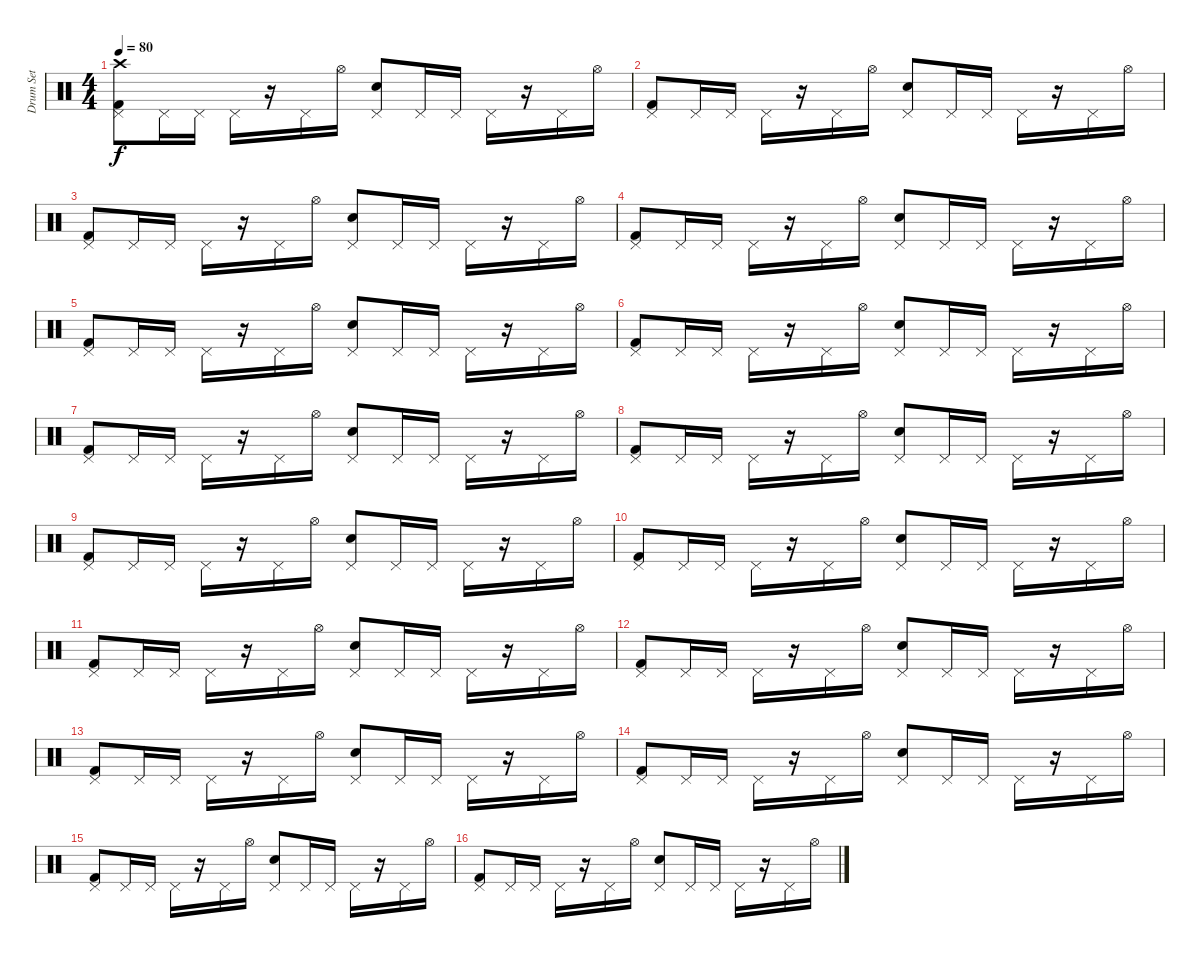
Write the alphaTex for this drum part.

\track ("Drum Set" "Drum Set") {instrument percussion}
\staff {score}
\articulation defaults
\ts (4 4)
\tempo 80
\clef neutral
\ks c
("Pedal Hi-Hat (hit)" "Kick (hit) 2" "Crash high (hit)").8{dy f} "Pedal Hi-Hat (hit)".16 "Pedal Hi-Hat (hit)".16 "Pedal Hi-Hat (hit)".16 r.16 "Pedal Hi-Hat (hit)".16 "Hi-Hat (open)".16 ("Pedal Hi-Hat (hit)" "Electric Snare (hit)").8 "Pedal Hi-Hat (hit)".16 "Pedal Hi-Hat (hit)".16 "Pedal Hi-Hat (hit)".16 r.16 "Pedal Hi-Hat (hit)".16 "Hi-Hat (open)".16 |
("Pedal Hi-Hat (hit)" "Kick (hit) 2").8 "Pedal Hi-Hat (hit)".16 "Pedal Hi-Hat (hit)".16 "Pedal Hi-Hat (hit)".16 r.16 "Pedal Hi-Hat (hit)".16 "Hi-Hat (open)".16 ("Pedal Hi-Hat (hit)" "Electric Snare (hit)").8 "Pedal Hi-Hat (hit)".16 "Pedal Hi-Hat (hit)".16 "Pedal Hi-Hat (hit)".16 r.16 "Pedal Hi-Hat (hit)".16 "Hi-Hat (open)".16 |
("Kick (hit) 2" "Pedal Hi-Hat (hit)").8 "Pedal Hi-Hat (hit)".16 "Pedal Hi-Hat (hit)".16 "Pedal Hi-Hat (hit)".16 r.16 "Pedal Hi-Hat (hit)".16 "Hi-Hat (open)".16 ("Electric Snare (hit)" "Pedal Hi-Hat (hit)").8 "Pedal Hi-Hat (hit)".16 "Pedal Hi-Hat (hit)".16 "Pedal Hi-Hat (hit)".16 r.16 "Pedal Hi-Hat (hit)".16 "Hi-Hat (open)".16 |
("Pedal Hi-Hat (hit)" "Kick (hit) 2").8 "Pedal Hi-Hat (hit)".16 "Pedal Hi-Hat (hit)".16 "Pedal Hi-Hat (hit)".16 r.16 "Pedal Hi-Hat (hit)".16 "Hi-Hat (open)".16 ("Pedal Hi-Hat (hit)" "Electric Snare (hit)").8 "Pedal Hi-Hat (hit)".16 "Pedal Hi-Hat (hit)".16 "Pedal Hi-Hat (hit)".16 r.16 "Pedal Hi-Hat (hit)".16 "Hi-Hat (open)".16 |
("Kick (hit) 2" "Pedal Hi-Hat (hit)").8 "Pedal Hi-Hat (hit)".16 "Pedal Hi-Hat (hit)".16 "Pedal Hi-Hat (hit)".16 r.16 "Pedal Hi-Hat (hit)".16 "Hi-Hat (open)".16 ("Electric Snare (hit)" "Pedal Hi-Hat (hit)").8 "Pedal Hi-Hat (hit)".16 "Pedal Hi-Hat (hit)".16 "Pedal Hi-Hat (hit)".16 r.16 "Pedal Hi-Hat (hit)".16 "Hi-Hat (open)".16 |
("Pedal Hi-Hat (hit)" "Kick (hit) 2").8 "Pedal Hi-Hat (hit)".16 "Pedal Hi-Hat (hit)".16 "Pedal Hi-Hat (hit)".16 r.16 "Pedal Hi-Hat (hit)".16 "Hi-Hat (open)".16 ("Pedal Hi-Hat (hit)" "Electric Snare (hit)").8 "Pedal Hi-Hat (hit)".16 "Pedal Hi-Hat (hit)".16 "Pedal Hi-Hat (hit)".16 r.16 "Pedal Hi-Hat (hit)".16 "Hi-Hat (open)".16 |
("Kick (hit) 2" "Pedal Hi-Hat (hit)").8 "Pedal Hi-Hat (hit)".16 "Pedal Hi-Hat (hit)".16 "Pedal Hi-Hat (hit)".16 r.16 "Pedal Hi-Hat (hit)".16 "Hi-Hat (open)".16 ("Electric Snare (hit)" "Pedal Hi-Hat (hit)").8 "Pedal Hi-Hat (hit)".16 "Pedal Hi-Hat (hit)".16 "Pedal Hi-Hat (hit)".16 r.16 "Pedal Hi-Hat (hit)".16 "Hi-Hat (open)".16 |
("Pedal Hi-Hat (hit)" "Kick (hit) 2").8 "Pedal Hi-Hat (hit)".16 "Pedal Hi-Hat (hit)".16 "Pedal Hi-Hat (hit)".16 r.16 "Pedal Hi-Hat (hit)".16 "Hi-Hat (open)".16 ("Pedal Hi-Hat (hit)" "Electric Snare (hit)").8 "Pedal Hi-Hat (hit)".16 "Pedal Hi-Hat (hit)".16 "Pedal Hi-Hat (hit)".16 r.16 "Pedal Hi-Hat (hit)".16 "Hi-Hat (open)".16 |
("Kick (hit) 2" "Pedal Hi-Hat (hit)").8 "Pedal Hi-Hat (hit)".16 "Pedal Hi-Hat (hit)".16 "Pedal Hi-Hat (hit)".16 r.16 "Pedal Hi-Hat (hit)".16 "Hi-Hat (open)".16 ("Electric Snare (hit)" "Pedal Hi-Hat (hit)").8 "Pedal Hi-Hat (hit)".16 "Pedal Hi-Hat (hit)".16 "Pedal Hi-Hat (hit)".16 r.16 "Pedal Hi-Hat (hit)".16 "Hi-Hat (open)".16 |
("Pedal Hi-Hat (hit)" "Kick (hit) 2").8 "Pedal Hi-Hat (hit)".16 "Pedal Hi-Hat (hit)".16 "Pedal Hi-Hat (hit)".16 r.16 "Pedal Hi-Hat (hit)".16 "Hi-Hat (open)".16 ("Pedal Hi-Hat (hit)" "Electric Snare (hit)").8 "Pedal Hi-Hat (hit)".16 "Pedal Hi-Hat (hit)".16 "Pedal Hi-Hat (hit)".16 r.16 "Pedal Hi-Hat (hit)".16 "Hi-Hat (open)".16 |
("Kick (hit) 2" "Pedal Hi-Hat (hit)").8 "Pedal Hi-Hat (hit)".16 "Pedal Hi-Hat (hit)".16 "Pedal Hi-Hat (hit)".16 r.16 "Pedal Hi-Hat (hit)".16 "Hi-Hat (open)".16 ("Electric Snare (hit)" "Pedal Hi-Hat (hit)").8 "Pedal Hi-Hat (hit)".16 "Pedal Hi-Hat (hit)".16 "Pedal Hi-Hat (hit)".16 r.16 "Pedal Hi-Hat (hit)".16 "Hi-Hat (open)".16 |
("Pedal Hi-Hat (hit)" "Kick (hit) 2").8 "Pedal Hi-Hat (hit)".16 "Pedal Hi-Hat (hit)".16 "Pedal Hi-Hat (hit)".16 r.16 "Pedal Hi-Hat (hit)".16 "Hi-Hat (open)".16 ("Pedal Hi-Hat (hit)" "Electric Snare (hit)").8 "Pedal Hi-Hat (hit)".16 "Pedal Hi-Hat (hit)".16 "Pedal Hi-Hat (hit)".16 r.16 "Pedal Hi-Hat (hit)".16 "Hi-Hat (open)".16 |
("Kick (hit) 2" "Pedal Hi-Hat (hit)").8 "Pedal Hi-Hat (hit)".16 "Pedal Hi-Hat (hit)".16 "Pedal Hi-Hat (hit)".16 r.16 "Pedal Hi-Hat (hit)".16 "Hi-Hat (open)".16 ("Electric Snare (hit)" "Pedal Hi-Hat (hit)").8 "Pedal Hi-Hat (hit)".16 "Pedal Hi-Hat (hit)".16 "Pedal Hi-Hat (hit)".16 r.16 "Pedal Hi-Hat (hit)".16 "Hi-Hat (open)".16 |
("Pedal Hi-Hat (hit)" "Kick (hit) 2").8 "Pedal Hi-Hat (hit)".16 "Pedal Hi-Hat (hit)".16 "Pedal Hi-Hat (hit)".16 r.16 "Pedal Hi-Hat (hit)".16 "Hi-Hat (open)".16 ("Pedal Hi-Hat (hit)" "Electric Snare (hit)").8 "Pedal Hi-Hat (hit)".16 "Pedal Hi-Hat (hit)".16 "Pedal Hi-Hat (hit)".16 r.16 "Pedal Hi-Hat (hit)".16 "Hi-Hat (open)".16 |
("Kick (hit) 2" "Pedal Hi-Hat (hit)").8 "Pedal Hi-Hat (hit)".16 "Pedal Hi-Hat (hit)".16 "Pedal Hi-Hat (hit)".16 r.16 "Pedal Hi-Hat (hit)".16 "Hi-Hat (open)".16 ("Electric Snare (hit)" "Pedal Hi-Hat (hit)").8 "Pedal Hi-Hat (hit)".16 "Pedal Hi-Hat (hit)".16 "Pedal Hi-Hat (hit)".16 r.16 "Pedal Hi-Hat (hit)".16 "Hi-Hat (open)".16 |
("Pedal Hi-Hat (hit)" "Kick (hit) 2").8 "Pedal Hi-Hat (hit)".16 "Pedal Hi-Hat (hit)".16 "Pedal Hi-Hat (hit)".16 r.16 "Pedal Hi-Hat (hit)".16 "Hi-Hat (open)".16 ("Pedal Hi-Hat (hit)" "Electric Snare (hit)").8 "Pedal Hi-Hat (hit)".16 "Pedal Hi-Hat (hit)".16 "Pedal Hi-Hat (hit)".16 r.16 "Pedal Hi-Hat (hit)".16 "Hi-Hat (open)".16
